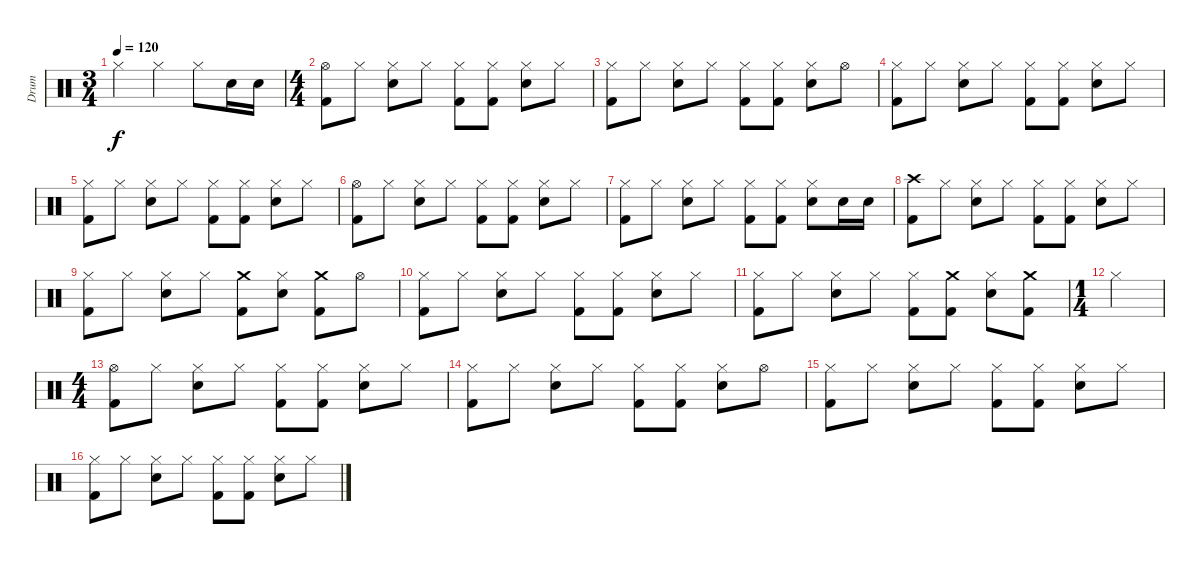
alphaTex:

\track ("Drum" "Drum") {instrument percussion}
\staff {score}
\articulation defaults
\ts (3 4)
\tempo 120
\clef neutral
\ks c "Hi-Hat (closed)".4{dy f} "Hi-Hat (closed)".4 "Hi-Hat (closed)".8 "Electric Snare (hit)".16 "Electric Snare (hit)".16
|
\ts (4 4)
("Hi-Hat (open)" "Kick (hit) 2").8 "Hi-Hat (closed)".8 ("Hi-Hat (closed)" "Electric Snare (hit)").8 "Hi-Hat (closed)".8 ("Hi-Hat (closed)" "Kick (hit) 2").8 ("Hi-Hat (closed)" "Kick (hit) 2").8 ("Hi-Hat (closed)" "Electric Snare (hit)").8 "Hi-Hat (closed)".8 |
("Hi-Hat (closed)" "Kick (hit) 2").8 "Hi-Hat (closed)".8 ("Hi-Hat (closed)" "Electric Snare (hit)").8 "Hi-Hat (closed)".8 ("Hi-Hat (closed)" "Kick (hit) 2").8 ("Hi-Hat (closed)" "Kick (hit) 2").8 ("Hi-Hat (closed)" "Electric Snare (hit)").8 "Hi-Hat (open)".8 |
("Hi-Hat (closed)" "Kick (hit) 2").8 "Hi-Hat (closed)".8 ("Hi-Hat (closed)" "Electric Snare (hit)").8 "Hi-Hat (closed)".8 ("Hi-Hat (closed)" "Kick (hit) 2").8 ("Hi-Hat (closed)" "Kick (hit) 2").8 ("Hi-Hat (closed)" "Electric Snare (hit)").8 "Hi-Hat (closed)".8 |
("Hi-Hat (closed)" "Kick (hit) 2").8 "Hi-Hat (closed)".8 ("Hi-Hat (closed)" "Electric Snare (hit)").8 "Hi-Hat (closed)".8 ("Hi-Hat (closed)" "Kick (hit) 2").8 ("Hi-Hat (closed)" "Kick (hit) 2").8 ("Hi-Hat (closed)" "Electric Snare (hit)").8 "Hi-Hat (closed)".8 |
("Hi-Hat (open)" "Kick (hit) 2").8 "Hi-Hat (closed)".8 ("Hi-Hat (closed)" "Electric Snare (hit)").8 "Hi-Hat (closed)".8 ("Hi-Hat (closed)" "Kick (hit) 2").8 ("Hi-Hat (closed)" "Kick (hit) 2").8 ("Hi-Hat (closed)" "Electric Snare (hit)").8 "Hi-Hat (closed)".8 |
("Hi-Hat (closed)" "Kick (hit) 2").8 "Hi-Hat (closed)".8 ("Hi-Hat (closed)" "Electric Snare (hit)").8 "Hi-Hat (closed)".8 ("Hi-Hat (closed)" "Kick (hit) 2").8 ("Hi-Hat (closed)" "Kick (hit) 2").8 ("Hi-Hat (closed)" "Electric Snare (hit)").8 "Electric Snare (hit)".16 "Electric Snare (hit)".16 |
("Crash high (hit)" "Kick (hit) 2").8 "Hi-Hat (closed)".8 ("Hi-Hat (closed)" "Electric Snare (hit)").8 "Hi-Hat (closed)".8 ("Hi-Hat (closed)" "Kick (hit) 2").8 ("Hi-Hat (closed)" "Kick (hit) 2").8 ("Hi-Hat (closed)" "Electric Snare (hit)").8 "Hi-Hat (closed)".8 |
("Hi-Hat (closed)" "Kick (hit) 2").8 "Hi-Hat (closed)".8 ("Hi-Hat (closed)" "Electric Snare (hit)").8 "Hi-Hat (closed)".8 ("Crash medium (hit)" "Kick (hit) 2").8 ("Hi-Hat (closed)" "Electric Snare (hit)").8 ("Crash medium (hit)" "Kick (hit) 2").8 "Hi-Hat (open)".8 |
("Hi-Hat (closed)" "Kick (hit) 2").8 "Hi-Hat (closed)".8 ("Hi-Hat (closed)" "Electric Snare (hit)").8 "Hi-Hat (closed)".8 ("Hi-Hat (closed)" "Kick (hit) 2").8 ("Hi-Hat (closed)" "Kick (hit) 2").8 ("Hi-Hat (closed)" "Electric Snare (hit)").8 "Hi-Hat (closed)".8 |
("Hi-Hat (closed)" "Kick (hit) 2").8 "Hi-Hat (closed)".8 ("Hi-Hat (closed)" "Electric Snare (hit)").8 "Hi-Hat (closed)".8 ("Hi-Hat (closed)" "Kick (hit) 2").8 ("Crash medium (hit)" "Kick (hit) 2").8 ("Hi-Hat (closed)" "Electric Snare (hit)").8 ("Crash medium (hit)" "Kick (hit) 2").8 |
\ts (1 4)
"Hi-Hat (closed)".4 |
\ts (4 4)
("Hi-Hat (open)" "Kick (hit) 2").8 "Hi-Hat (closed)".8 ("Hi-Hat (closed)" "Electric Snare (hit)").8 "Hi-Hat (closed)".8 ("Hi-Hat (closed)" "Kick (hit) 2").8 ("Hi-Hat (closed)" "Kick (hit) 2").8 ("Hi-Hat (closed)" "Electric Snare (hit)").8 "Hi-Hat (closed)".8 |
("Hi-Hat (closed)" "Kick (hit) 2").8 "Hi-Hat (closed)".8 ("Hi-Hat (closed)" "Electric Snare (hit)").8 "Hi-Hat (closed)".8 ("Hi-Hat (closed)" "Kick (hit) 2").8 ("Hi-Hat (closed)" "Kick (hit) 2").8 ("Hi-Hat (closed)" "Electric Snare (hit)").8 "Hi-Hat (open)".8 |
("Hi-Hat (closed)" "Kick (hit) 2").8 "Hi-Hat (closed)".8 ("Hi-Hat (closed)" "Electric Snare (hit)").8 "Hi-Hat (closed)".8 ("Hi-Hat (closed)" "Kick (hit) 2").8 ("Hi-Hat (closed)" "Kick (hit) 2").8 ("Hi-Hat (closed)" "Electric Snare (hit)").8 "Hi-Hat (closed)".8 |
("Hi-Hat (closed)" "Kick (hit) 2").8 "Hi-Hat (closed)".8 ("Hi-Hat (closed)" "Electric Snare (hit)").8 "Hi-Hat (closed)".8 ("Hi-Hat (closed)" "Kick (hit) 2").8 ("Hi-Hat (closed)" "Kick (hit) 2").8 ("Hi-Hat (closed)" "Electric Snare (hit)").8 "Hi-Hat (closed)".8
